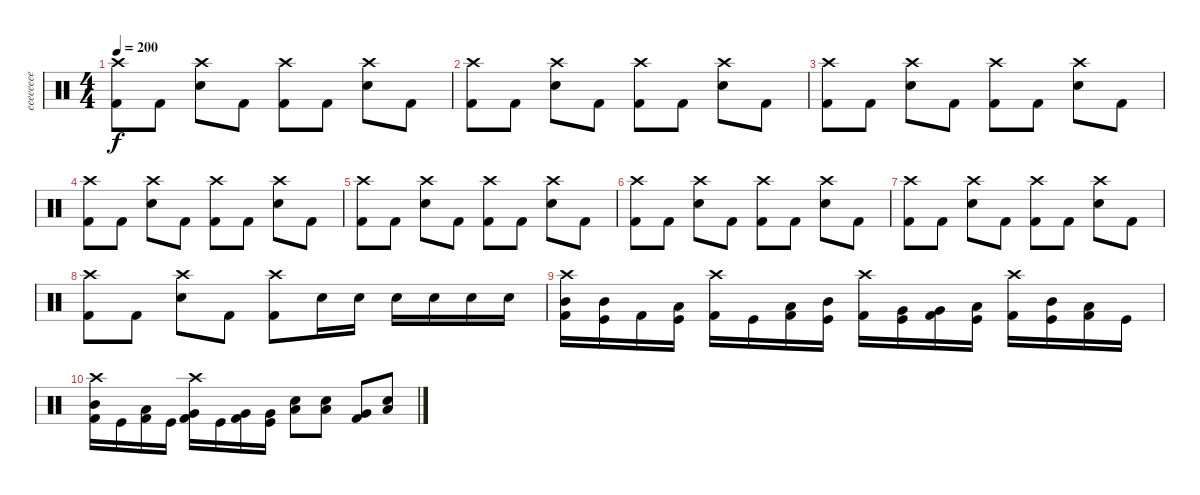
\track ("eeeeeeee" "eeeeeeee") {instrument percussion}
\staff {score}
\articulation defaults
\ts (4 4)
\tempo 200
\clef neutral
\ks c
("Crash high (hit)" "Kick (hit) 2").8{dy f} "Kick (hit) 2".8 ("Crash high (hit)" "Electric Snare (hit)").8 "Kick (hit) 2".8 ("Crash high (hit)" "Kick (hit) 2").8 "Kick (hit) 2".8 ("Crash high (hit)" "Electric Snare (hit)").8 "Kick (hit) 2".8 |
("Crash high (hit)" "Kick (hit) 2").8 "Kick (hit) 2".8 ("Crash high (hit)" "Electric Snare (hit)").8 "Kick (hit) 2".8 ("Crash high (hit)" "Kick (hit) 2").8 "Kick (hit) 2".8 ("Crash high (hit)" "Electric Snare (hit)").8 "Kick (hit) 2".8 |
("Crash high (hit)" "Kick (hit) 2").8 "Kick (hit) 2".8 ("Crash high (hit)" "Electric Snare (hit)").8 "Kick (hit) 2".8 ("Crash high (hit)" "Kick (hit) 2").8 "Kick (hit) 2".8 ("Crash high (hit)" "Electric Snare (hit)").8 "Kick (hit) 2".8 |
("Crash high (hit)" "Kick (hit) 2").8 "Kick (hit) 2".8 ("Crash high (hit)" "Electric Snare (hit)").8 "Kick (hit) 2".8 ("Crash high (hit)" "Kick (hit) 2").8 "Kick (hit) 2".8 ("Crash high (hit)" "Electric Snare (hit)").8 "Kick (hit) 2".8 |
("Crash high (hit)" "Kick (hit) 2").8 "Kick (hit) 2".8 ("Crash high (hit)" "Electric Snare (hit)").8 "Kick (hit) 2".8 ("Crash high (hit)" "Kick (hit) 2").8 "Kick (hit) 2".8 ("Crash high (hit)" "Electric Snare (hit)").8 "Kick (hit) 2".8 |
("Crash high (hit)" "Kick (hit) 2").8 "Kick (hit) 2".8 ("Crash high (hit)" "Electric Snare (hit)").8 "Kick (hit) 2".8 ("Crash high (hit)" "Kick (hit) 2").8 "Kick (hit) 2".8 ("Crash high (hit)" "Electric Snare (hit)").8 "Kick (hit) 2".8 |
("Crash high (hit)" "Kick (hit) 2").8 "Kick (hit) 2".8 ("Crash high (hit)" "Electric Snare (hit)").8 "Kick (hit) 2".8 ("Crash high (hit)" "Kick (hit) 2").8 "Kick (hit) 2".8 ("Crash high (hit)" "Electric Snare (hit)").8 "Kick (hit) 2".8 |
("Crash high (hit)" "Kick (hit) 2").8 "Kick (hit) 2".8 ("Crash high (hit)" "Electric Snare (hit)").8 "Kick (hit) 2".8 ("Crash high (hit)" "Kick (hit) 2").8 "Electric Snare (hit)".16 "Electric Snare (hit)".16 "Electric Snare (hit)".16 "Electric Snare (hit)".16 "Electric Snare (hit)".16 "Electric Snare (hit)".16 |
("Crash high (hit)" "Mid Tom (hit)" "Kick (hit) 2").16 ("Mid Tom (hit)" "Kick (hit)").16 "Kick (hit) 2".16 ("Low Tom (hit)" "Kick (hit)").16 ("Crash high (hit)" "Kick (hit) 2").16 "Kick (hit)".16 ("Low Tom (hit)" "Kick (hit) 2").16 ("Mid Tom (hit)" "Kick (hit)").16 ("Crash high (hit)" "Kick (hit) 2").16 ("Very Low Tom (hit)" "Kick (hit)").16 ("Very Low Tom (hit)" "Kick (hit) 2").16 ("Low Floor Tom (hit)" "Kick (hit)").16 ("Crash high (hit)" "Kick (hit) 2").16 ("Mid Tom (hit)" "Kick (hit)").16 ("Low Tom (hit)" "Kick (hit) 2").16 "Kick (hit)".16 |
("Crash high (hit)" "Mid Tom (hit)" "Kick (hit) 2").16 "Kick (hit)".16 ("Low Tom (hit)" "Kick (hit) 2").16 "Kick (hit)".16 ("Crash high (hit)" "Very Low Tom (hit)" "Kick (hit) 2").16 "Kick (hit)".16 ("Very Low Tom (hit)" "Kick (hit) 2").16 ("Very Low Tom (hit)" "Kick (hit)").16 ("Low Tom (hit)" "Electric Snare (hit)").8 ("Low Tom (hit)" "Electric Snare (hit)").8 ("Very Low Tom (hit)" "Kick (hit) 2").8 ("Low Tom (hit)" "Electric Snare (hit)").8
